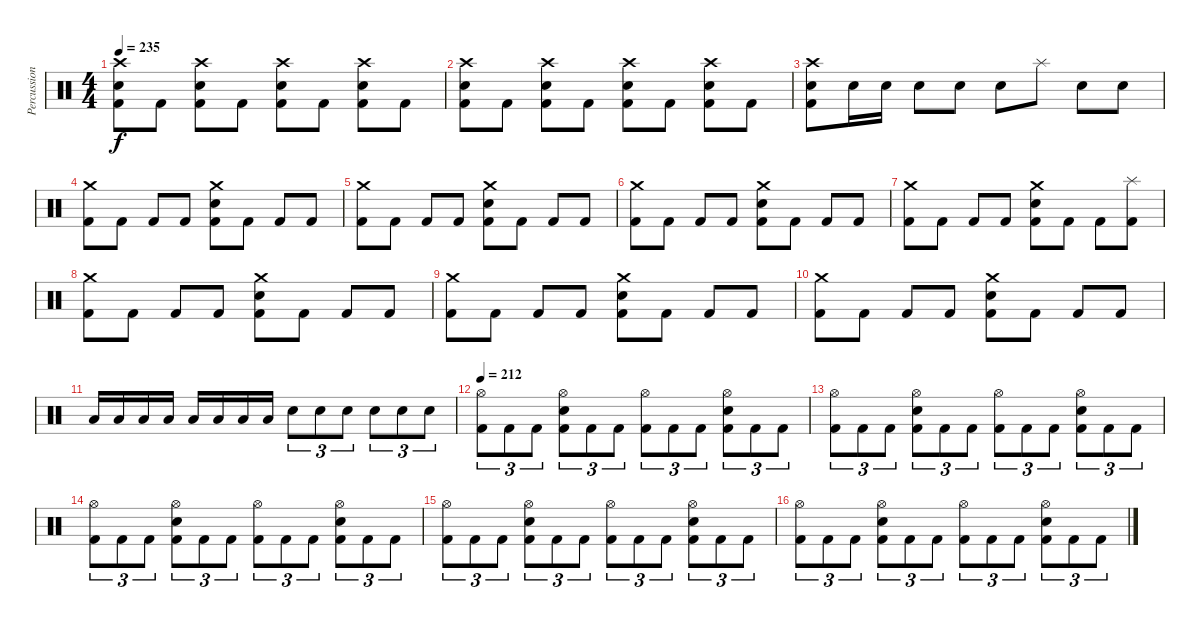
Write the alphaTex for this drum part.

\track ("Percussion" "Percussion") {instrument percussion}
\staff {score}
\articulation defaults
\ts (4 4)
\tempo 235
\clef neutral
\ks c
("Crash high (hit)" "Snare (hit) 2" "Kick (hit) 2").8{dy f} "Kick (hit) 2".8 ("Crash high (hit)" "Snare (hit) 2" "Kick (hit) 2").8 "Kick (hit) 2".8 ("Crash high (hit)" "Snare (hit) 2" "Kick (hit) 2").8 "Kick (hit) 2".8 ("Crash high (hit)" "Snare (hit) 2" "Kick (hit) 2").8 "Kick (hit) 2".8 |
("Crash high (hit)" "Snare (hit) 2" "Kick (hit) 2").8 "Kick (hit) 2".8 ("Crash high (hit)" "Snare (hit) 2" "Kick (hit) 2").8 "Kick (hit) 2".8 ("Crash high (hit)" "Snare (hit) 2" "Kick (hit) 2").8 "Kick (hit) 2".8 ("Crash high (hit)" "Snare (hit) 2" "Kick (hit) 2").8 "Kick (hit) 2".8 |
("Crash high (hit)" "Snare (hit) 2" "Kick (hit) 2").8 "Snare (hit) 2".16 "Snare (hit) 2".16 "Snare (hit) 2".8 "Snare (hit) 2".8 "Snare (hit) 2".8 "Splash (hit)".8 "Snare (hit) 2".8 "Snare (hit) 2".8 |
("Crash medium (hit)" "Kick (hit) 2").8 "Kick (hit) 2".8 "Kick (hit) 2".8 "Kick (hit) 2".8 ("Crash medium (hit)" "Snare (hit) 2" "Kick (hit) 2").8 "Kick (hit) 2".8 "Kick (hit) 2".8 "Kick (hit) 2".8 |
("Crash medium (hit)" "Kick (hit) 2").8 "Kick (hit) 2".8 "Kick (hit) 2".8 "Kick (hit) 2".8 ("Crash medium (hit)" "Snare (hit) 2" "Kick (hit) 2").8 "Kick (hit) 2".8 "Kick (hit) 2".8 "Kick (hit) 2".8 |
("Crash medium (hit)" "Kick (hit) 2").8 "Kick (hit) 2".8 "Kick (hit) 2".8 "Kick (hit) 2".8 ("Crash medium (hit)" "Snare (hit) 2" "Kick (hit) 2").8 "Kick (hit) 2".8 "Kick (hit) 2".8 "Kick (hit) 2".8 |
("Crash medium (hit)" "Kick (hit) 2").8 "Kick (hit) 2".8 "Kick (hit) 2".8 "Kick (hit) 2".8 ("Crash medium (hit)" "Snare (hit) 2" "Kick (hit) 2").8 "Kick (hit) 2".8 "Kick (hit) 2".8 ("Splash (hit)" "Kick (hit) 2").8 |
("Crash medium (hit)" "Kick (hit) 2").8 "Kick (hit) 2".8 "Kick (hit) 2".8 "Kick (hit) 2".8 ("Crash medium (hit)" "Snare (hit) 2" "Kick (hit) 2").8 "Kick (hit) 2".8 "Kick (hit) 2".8 "Kick (hit) 2".8 |
("Crash medium (hit)" "Kick (hit) 2").8 "Kick (hit) 2".8 "Kick (hit) 2".8 "Kick (hit) 2".8 ("Crash medium (hit)" "Snare (hit) 2" "Kick (hit) 2").8 "Kick (hit) 2".8 "Kick (hit) 2".8 "Kick (hit) 2".8 |
("Crash medium (hit)" "Kick (hit) 2").8 "Kick (hit) 2".8 "Kick (hit) 2".8 "Kick (hit) 2".8 ("Crash medium (hit)" "Snare (hit) 2" "Kick (hit) 2").8 "Kick (hit) 2".8 "Kick (hit) 2".8 "Kick (hit) 2".8 |
"Low Tom (hit)".16 "Low Tom (hit)".16 "Low Tom (hit)".16 "Low Tom (hit)".16 "Low Tom (hit)".16 "Low Tom (hit)".16 "Low Tom (hit)".16 "Low Tom (hit)".16 "Snare (hit) 2".8{tu (3 2)} "Snare (hit) 2".8{tu (3 2)} "Snare (hit) 2".8{tu (3 2)} "Snare (hit) 2".8{tu (3 2)} "Snare (hit) 2".8{tu (3 2)} "Snare (hit) 2".8{tu (3 2)} |
\tempo 212
("Hi-Hat (open)" "Kick (hit) 2").8{tu (3 2)} "Kick (hit) 2".8{tu (3 2)} "Kick (hit) 2".8{tu (3 2)} ("Hi-Hat (open)" "Snare (hit) 2" "Kick (hit) 2").8{tu (3 2)} "Kick (hit) 2".8{tu (3 2)} "Kick (hit) 2".8{tu (3 2)} ("Hi-Hat (open)" "Kick (hit) 2").8{tu (3 2)} "Kick (hit) 2".8{tu (3 2)} "Kick (hit) 2".8{tu (3 2)} ("Hi-Hat (open)" "Snare (hit) 2" "Kick (hit) 2").8{tu (3 2)} "Kick (hit) 2".8{tu (3 2)} "Kick (hit) 2".8{tu (3 2)} |
("Hi-Hat (open)" "Kick (hit) 2").8{tu (3 2)} "Kick (hit) 2".8{tu (3 2)} "Kick (hit) 2".8{tu (3 2)} ("Hi-Hat (open)" "Snare (hit) 2" "Kick (hit) 2").8{tu (3 2)} "Kick (hit) 2".8{tu (3 2)} "Kick (hit) 2".8{tu (3 2)} ("Hi-Hat (open)" "Kick (hit) 2").8{tu (3 2)} "Kick (hit) 2".8{tu (3 2)} "Kick (hit) 2".8{tu (3 2)} ("Hi-Hat (open)" "Snare (hit) 2" "Kick (hit) 2").8{tu (3 2)} "Kick (hit) 2".8{tu (3 2)} "Kick (hit) 2".8{tu (3 2)} |
("Hi-Hat (open)" "Kick (hit) 2").8{tu (3 2)} "Kick (hit) 2".8{tu (3 2)} "Kick (hit) 2".8{tu (3 2)} ("Hi-Hat (open)" "Snare (hit) 2" "Kick (hit) 2").8{tu (3 2)} "Kick (hit) 2".8{tu (3 2)} "Kick (hit) 2".8{tu (3 2)} ("Hi-Hat (open)" "Kick (hit) 2").8{tu (3 2)} "Kick (hit) 2".8{tu (3 2)} "Kick (hit) 2".8{tu (3 2)} ("Hi-Hat (open)" "Snare (hit) 2" "Kick (hit) 2").8{tu (3 2)} "Kick (hit) 2".8{tu (3 2)} "Kick (hit) 2".8{tu (3 2)} |
("Hi-Hat (open)" "Kick (hit) 2").8{tu (3 2)} "Kick (hit) 2".8{tu (3 2)} "Kick (hit) 2".8{tu (3 2)} ("Hi-Hat (open)" "Snare (hit) 2" "Kick (hit) 2").8{tu (3 2)} "Kick (hit) 2".8{tu (3 2)} "Kick (hit) 2".8{tu (3 2)} ("Hi-Hat (open)" "Kick (hit) 2").8{tu (3 2)} "Kick (hit) 2".8{tu (3 2)} "Kick (hit) 2".8{tu (3 2)} ("Hi-Hat (open)" "Snare (hit) 2" "Kick (hit) 2").8{tu (3 2)} "Kick (hit) 2".8{tu (3 2)} "Kick (hit) 2".8{tu (3 2)} |
("Hi-Hat (open)" "Kick (hit) 2").8{tu (3 2)} "Kick (hit) 2".8{tu (3 2)} "Kick (hit) 2".8{tu (3 2)} ("Hi-Hat (open)" "Snare (hit) 2" "Kick (hit) 2").8{tu (3 2)} "Kick (hit) 2".8{tu (3 2)} "Kick (hit) 2".8{tu (3 2)} ("Hi-Hat (open)" "Kick (hit) 2").8{tu (3 2)} "Kick (hit) 2".8{tu (3 2)} "Kick (hit) 2".8{tu (3 2)} ("Hi-Hat (open)" "Snare (hit) 2" "Kick (hit) 2").8{tu (3 2)} "Kick (hit) 2".8{tu (3 2)} "Kick (hit) 2".8{tu (3 2)}
